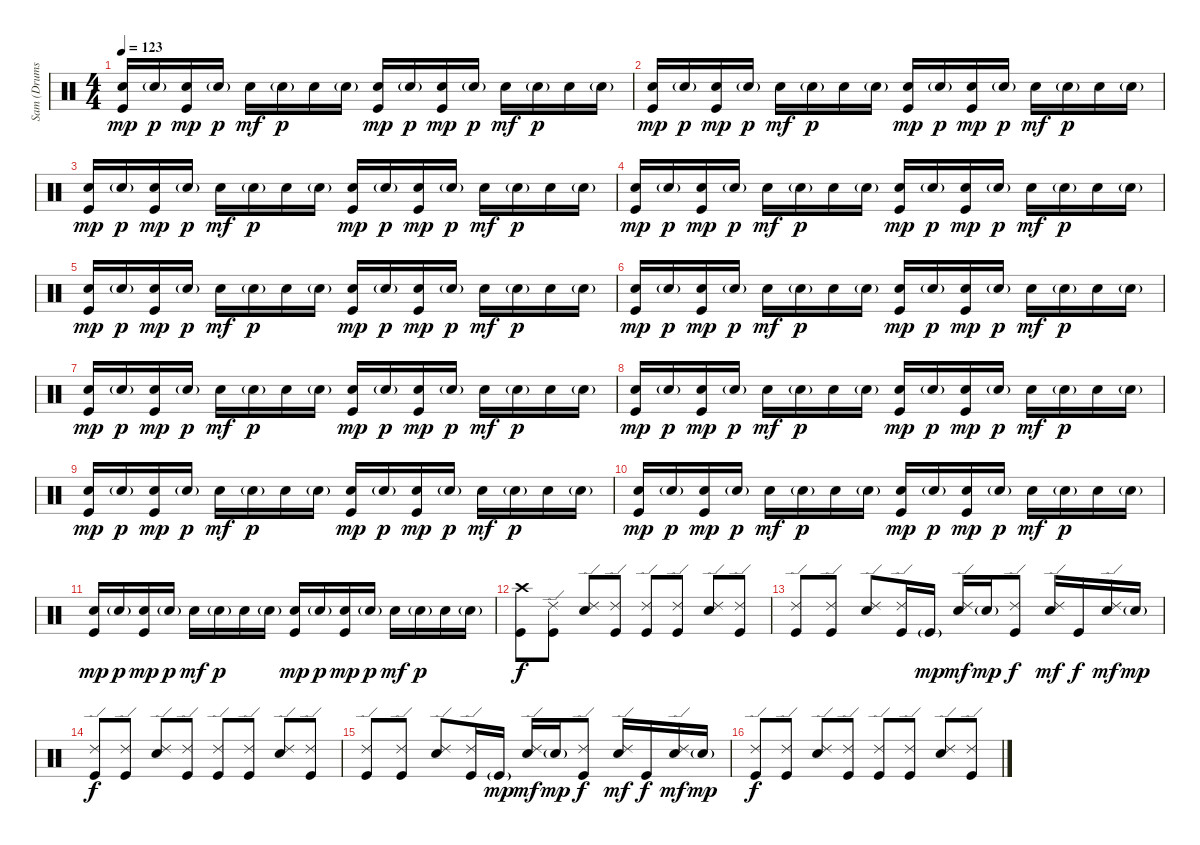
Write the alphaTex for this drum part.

\track ("Sam (Drums)" "Sam (Drums") {instrument percussion}
\staff {score}
\articulation defaults
\ts (4 4)
\tempo 123
\clef neutral
\ks c
("Snare (hit) 2" "Kick (hit)").16{dy mp} "Snare (hit) 2"{g}.16{dy p} ("Snare (hit) 2" "Kick (hit)").16{dy mp} "Snare (hit) 2"{g}.16{dy p} "Snare (hit) 2".16{dy mf} "Snare (hit) 2"{g}.16{dy p} "Snare (hit) 2".16 "Snare (hit) 2"{g}.16 ("Snare (hit) 2" "Kick (hit)").16{dy mp} "Snare (hit) 2"{g}.16{dy p} ("Snare (hit) 2" "Kick (hit)").16{dy mp} "Snare (hit) 2"{g}.16{dy p} "Snare (hit) 2".16{dy mf} "Snare (hit) 2"{g}.16{dy p} "Snare (hit) 2".16 "Snare (hit) 2"{g}.16 |
("Snare (hit) 2" "Kick (hit)").16{dy mp} "Snare (hit) 2"{g}.16{dy p} ("Snare (hit) 2" "Kick (hit)").16{dy mp} "Snare (hit) 2"{g}.16{dy p} "Snare (hit) 2".16{dy mf} "Snare (hit) 2"{g}.16{dy p} "Snare (hit) 2".16 "Snare (hit) 2"{g}.16 ("Snare (hit) 2" "Kick (hit)").16{dy mp} "Snare (hit) 2"{g}.16{dy p} ("Snare (hit) 2" "Kick (hit)").16{dy mp} "Snare (hit) 2"{g}.16{dy p} "Snare (hit) 2".16{dy mf} "Snare (hit) 2"{g}.16{dy p} "Snare (hit) 2".16 "Snare (hit) 2"{g}.16 |
("Snare (hit) 2" "Kick (hit)").16{dy mp} "Snare (hit) 2"{g}.16{dy p} ("Snare (hit) 2" "Kick (hit)").16{dy mp} "Snare (hit) 2"{g}.16{dy p} "Snare (hit) 2".16{dy mf} "Snare (hit) 2"{g}.16{dy p} "Snare (hit) 2".16 "Snare (hit) 2"{g}.16 ("Snare (hit) 2" "Kick (hit)").16{dy mp} "Snare (hit) 2"{g}.16{dy p} ("Snare (hit) 2" "Kick (hit)").16{dy mp} "Snare (hit) 2"{g}.16{dy p} "Snare (hit) 2".16{dy mf} "Snare (hit) 2"{g}.16{dy p} "Snare (hit) 2".16 "Snare (hit) 2"{g}.16 |
("Snare (hit) 2" "Kick (hit)").16{dy mp} "Snare (hit) 2"{g}.16{dy p} ("Snare (hit) 2" "Kick (hit)").16{dy mp} "Snare (hit) 2"{g}.16{dy p} "Snare (hit) 2".16{dy mf} "Snare (hit) 2"{g}.16{dy p} "Snare (hit) 2".16 "Snare (hit) 2"{g}.16 ("Snare (hit) 2" "Kick (hit)").16{dy mp} "Snare (hit) 2"{g}.16{dy p} ("Snare (hit) 2" "Kick (hit)").16{dy mp} "Snare (hit) 2"{g}.16{dy p} "Snare (hit) 2".16{dy mf} "Snare (hit) 2"{g}.16{dy p} "Snare (hit) 2".16 "Snare (hit) 2"{g}.16 |
("Snare (hit) 2" "Kick (hit)").16{dy mp} "Snare (hit) 2"{g}.16{dy p} ("Snare (hit) 2" "Kick (hit)").16{dy mp} "Snare (hit) 2"{g}.16{dy p} "Snare (hit) 2".16{dy mf} "Snare (hit) 2"{g}.16{dy p} "Snare (hit) 2".16 "Snare (hit) 2"{g}.16 ("Snare (hit) 2" "Kick (hit)").16{dy mp} "Snare (hit) 2"{g}.16{dy p} ("Snare (hit) 2" "Kick (hit)").16{dy mp} "Snare (hit) 2"{g}.16{dy p} "Snare (hit) 2".16{dy mf} "Snare (hit) 2"{g}.16{dy p} "Snare (hit) 2".16 "Snare (hit) 2"{g}.16 |
("Snare (hit) 2" "Kick (hit)").16{dy mp} "Snare (hit) 2"{g}.16{dy p} ("Snare (hit) 2" "Kick (hit)").16{dy mp} "Snare (hit) 2"{g}.16{dy p} "Snare (hit) 2".16{dy mf} "Snare (hit) 2"{g}.16{dy p} "Snare (hit) 2".16 "Snare (hit) 2"{g}.16 ("Snare (hit) 2" "Kick (hit)").16{dy mp} "Snare (hit) 2"{g}.16{dy p} ("Snare (hit) 2" "Kick (hit)").16{dy mp} "Snare (hit) 2"{g}.16{dy p} "Snare (hit) 2".16{dy mf} "Snare (hit) 2"{g}.16{dy p} "Snare (hit) 2".16 "Snare (hit) 2"{g}.16 |
("Snare (hit) 2" "Kick (hit)").16{dy mp} "Snare (hit) 2"{g}.16{dy p} ("Snare (hit) 2" "Kick (hit)").16{dy mp} "Snare (hit) 2"{g}.16{dy p} "Snare (hit) 2".16{dy mf} "Snare (hit) 2"{g}.16{dy p} "Snare (hit) 2".16 "Snare (hit) 2"{g}.16 ("Snare (hit) 2" "Kick (hit)").16{dy mp} "Snare (hit) 2"{g}.16{dy p} ("Snare (hit) 2" "Kick (hit)").16{dy mp} "Snare (hit) 2"{g}.16{dy p} "Snare (hit) 2".16{dy mf} "Snare (hit) 2"{g}.16{dy p} "Snare (hit) 2".16 "Snare (hit) 2"{g}.16 |
("Snare (hit) 2" "Kick (hit)").16{dy mp} "Snare (hit) 2"{g}.16{dy p} ("Snare (hit) 2" "Kick (hit)").16{dy mp} "Snare (hit) 2"{g}.16{dy p} "Snare (hit) 2".16{dy mf} "Snare (hit) 2"{g}.16{dy p} "Snare (hit) 2".16 "Snare (hit) 2"{g}.16 ("Snare (hit) 2" "Kick (hit)").16{dy mp} "Snare (hit) 2"{g}.16{dy p} ("Snare (hit) 2" "Kick (hit)").16{dy mp} "Snare (hit) 2"{g}.16{dy p} "Snare (hit) 2".16{dy mf} "Snare (hit) 2"{g}.16{dy p} "Snare (hit) 2".16 "Snare (hit) 2"{g}.16 |
("Snare (hit) 2" "Kick (hit)").16{dy mp} "Snare (hit) 2"{g}.16{dy p} ("Snare (hit) 2" "Kick (hit)").16{dy mp} "Snare (hit) 2"{g}.16{dy p} "Snare (hit) 2".16{dy mf} "Snare (hit) 2"{g}.16{dy p} "Snare (hit) 2".16 "Snare (hit) 2"{g}.16 ("Snare (hit) 2" "Kick (hit)").16{dy mp} "Snare (hit) 2"{g}.16{dy p} ("Snare (hit) 2" "Kick (hit)").16{dy mp} "Snare (hit) 2"{g}.16{dy p} "Snare (hit) 2".16{dy mf} "Snare (hit) 2"{g}.16{dy p} "Snare (hit) 2".16 "Snare (hit) 2"{g}.16 |
("Snare (hit) 2" "Kick (hit)").16{dy mp} "Snare (hit) 2"{g}.16{dy p} ("Snare (hit) 2" "Kick (hit)").16{dy mp} "Snare (hit) 2"{g}.16{dy p} "Snare (hit) 2".16{dy mf} "Snare (hit) 2"{g}.16{dy p} "Snare (hit) 2".16 "Snare (hit) 2"{g}.16 ("Snare (hit) 2" "Kick (hit)").16{dy mp} "Snare (hit) 2"{g}.16{dy p} ("Snare (hit) 2" "Kick (hit)").16{dy mp} "Snare (hit) 2"{g}.16{dy p} "Snare (hit) 2".16{dy mf} "Snare (hit) 2"{g}.16{dy p} "Snare (hit) 2".16 "Snare (hit) 2"{g}.16 |
("Snare (hit) 2" "Kick (hit)").16{dy mp} "Snare (hit) 2"{g}.16{dy p} ("Snare (hit) 2" "Kick (hit)").16{dy mp} "Snare (hit) 2"{g}.16{dy p} "Snare (hit) 2".16{dy mf} "Snare (hit) 2"{g}.16{dy p} "Snare (hit) 2".16 "Snare (hit) 2"{g}.16 ("Snare (hit) 2" "Kick (hit)").16{dy mp} "Snare (hit) 2"{g}.16{dy p} ("Snare (hit) 2" "Kick (hit)").16{dy mp} "Snare (hit) 2"{g}.16{dy p} "Snare (hit) 2".16{dy mf} "Snare (hit) 2"{g}.16{dy p} "Snare (hit) 2".16 "Snare (hit) 2"{g}.16 |
("Crash high (hit)" "Kick (hit)").8{dy f} ("Ride (edge) 2" "Kick (hit)").8 ("Ride (edge) 2" "Snare (hit) 2").8 ("Ride (edge) 2" "Kick (hit)").8 ("Ride (edge) 2" "Kick (hit)").8 ("Ride (edge) 2" "Kick (hit)").8 ("Ride (edge) 2" "Snare (hit) 2").8 ("Ride (edge) 2" "Kick (hit)").8 |
("Ride (edge) 2" "Kick (hit)").8 ("Ride (edge) 2" "Kick (hit)").8 ("Ride (edge) 2" "Snare (hit) 2").8 ("Ride (edge) 2" "Kick (hit)").16 "Kick (hit)"{g}.16{dy mp} ("Ride (edge) 2" "Snare (hit) 2").16{dy mf} "Snare (hit) 2"{g}.16{dy mp} ("Ride (edge) 2" "Kick (hit)").8{dy f} ("Ride (edge) 2" "Snare (hit) 2").16{dy mf} "Kick (hit)".16{dy f} ("Ride (edge) 2" "Snare (hit) 2").16{dy mf} "Snare (hit) 2"{g}.16{dy mp} |
("Ride (edge) 2" "Kick (hit)").8{dy f} ("Ride (edge) 2" "Kick (hit)").8 ("Ride (edge) 2" "Snare (hit) 2").8 ("Ride (edge) 2" "Kick (hit)").8 ("Ride (edge) 2" "Kick (hit)").8 ("Ride (edge) 2" "Kick (hit)").8 ("Ride (edge) 2" "Snare (hit) 2").8 ("Ride (edge) 2" "Kick (hit)").8 |
("Ride (edge) 2" "Kick (hit)").8 ("Ride (edge) 2" "Kick (hit)").8 ("Ride (edge) 2" "Snare (hit) 2").8 ("Ride (edge) 2" "Kick (hit)").16 "Kick (hit)"{g}.16{dy mp} ("Ride (edge) 2" "Snare (hit) 2").16{dy mf} "Snare (hit) 2"{g}.16{dy mp} ("Ride (edge) 2" "Kick (hit)").8{dy f} ("Ride (edge) 2" "Snare (hit) 2").16{dy mf} "Kick (hit)".16{dy f} ("Ride (edge) 2" "Snare (hit) 2").16{dy mf} "Snare (hit) 2"{g}.16{dy mp} |
("Ride (edge) 2" "Kick (hit)").8{dy f} ("Ride (edge) 2" "Kick (hit)").8 ("Ride (edge) 2" "Snare (hit) 2").8 ("Ride (edge) 2" "Kick (hit)").8 ("Ride (edge) 2" "Kick (hit)").8 ("Ride (edge) 2" "Kick (hit)").8 ("Ride (edge) 2" "Snare (hit) 2").8 ("Ride (edge) 2" "Kick (hit)").8
